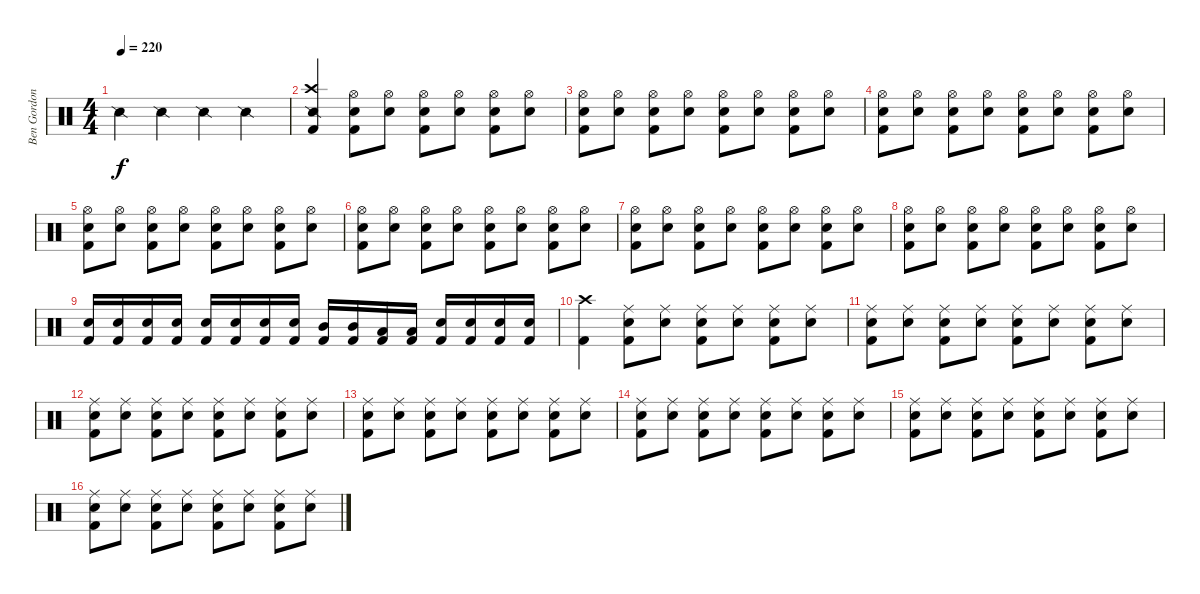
\track ("Ben Gordon" "Ben Gordon") {instrument percussion}
\staff {score}
\articulation defaults
\ts (4 4)
\tempo 220
\clef neutral
\ks c "Snare (side stick) 2".4{dy f} "Snare (side stick) 2".4 "Snare (side stick) 2".4 "Snare (side stick) 2".4
|
("Crash high (hit)" "Snare (side stick) 2" "Kick (hit) 2").4 ("Hi-Hat (open)" "Snare (hit) 2" "Kick (hit) 2").8 ("Hi-Hat (open)" "Snare (hit) 2").8 ("Hi-Hat (open)" "Snare (hit) 2" "Kick (hit) 2").8 ("Hi-Hat (open)" "Snare (hit) 2").8 ("Hi-Hat (open)" "Snare (hit) 2" "Kick (hit) 2").8 ("Hi-Hat (open)" "Snare (hit) 2").8 |
("Hi-Hat (open)" "Snare (hit) 2" "Kick (hit) 2").8 ("Hi-Hat (open)" "Snare (hit) 2").8 ("Hi-Hat (open)" "Snare (hit) 2" "Kick (hit) 2").8 ("Hi-Hat (open)" "Snare (hit) 2").8 ("Hi-Hat (open)" "Snare (hit) 2" "Kick (hit) 2").8 ("Hi-Hat (open)" "Snare (hit) 2").8 ("Hi-Hat (open)" "Snare (hit) 2" "Kick (hit) 2").8 ("Hi-Hat (open)" "Snare (hit) 2").8 |
("Hi-Hat (open)" "Snare (hit) 2" "Kick (hit) 2").8 ("Hi-Hat (open)" "Snare (hit) 2").8 ("Hi-Hat (open)" "Snare (hit) 2" "Kick (hit) 2").8 ("Hi-Hat (open)" "Snare (hit) 2").8 ("Hi-Hat (open)" "Snare (hit) 2" "Kick (hit) 2").8 ("Hi-Hat (open)" "Snare (hit) 2").8 ("Hi-Hat (open)" "Snare (hit) 2" "Kick (hit) 2").8 ("Hi-Hat (open)" "Snare (hit) 2").8 |
("Hi-Hat (open)" "Snare (hit) 2" "Kick (hit) 2").8 ("Hi-Hat (open)" "Snare (hit) 2").8 ("Hi-Hat (open)" "Snare (hit) 2" "Kick (hit) 2").8 ("Hi-Hat (open)" "Snare (hit) 2").8 ("Hi-Hat (open)" "Snare (hit) 2" "Kick (hit) 2").8 ("Hi-Hat (open)" "Snare (hit) 2").8 ("Hi-Hat (open)" "Snare (hit) 2" "Kick (hit) 2").8 ("Hi-Hat (open)" "Snare (hit) 2").8 |
("Hi-Hat (open)" "Snare (hit) 2" "Kick (hit) 2").8 ("Hi-Hat (open)" "Snare (hit) 2").8 ("Hi-Hat (open)" "Snare (hit) 2" "Kick (hit) 2").8 ("Hi-Hat (open)" "Snare (hit) 2").8 ("Hi-Hat (open)" "Snare (hit) 2" "Kick (hit) 2").8 ("Hi-Hat (open)" "Snare (hit) 2").8 ("Hi-Hat (open)" "Snare (hit) 2" "Kick (hit) 2").8 ("Hi-Hat (open)" "Snare (hit) 2").8 |
("Hi-Hat (open)" "Snare (hit) 2" "Kick (hit) 2").8 ("Hi-Hat (open)" "Snare (hit) 2").8 ("Hi-Hat (open)" "Snare (hit) 2" "Kick (hit) 2").8 ("Hi-Hat (open)" "Snare (hit) 2").8 ("Hi-Hat (open)" "Snare (hit) 2" "Kick (hit) 2").8 ("Hi-Hat (open)" "Snare (hit) 2").8 ("Hi-Hat (open)" "Snare (hit) 2" "Kick (hit) 2").8 ("Hi-Hat (open)" "Snare (hit) 2").8 |
("Hi-Hat (open)" "Snare (hit) 2" "Kick (hit) 2").8 ("Hi-Hat (open)" "Snare (hit) 2").8 ("Hi-Hat (open)" "Snare (hit) 2" "Kick (hit) 2").8 ("Hi-Hat (open)" "Snare (hit) 2").8 ("Hi-Hat (open)" "Snare (hit) 2" "Kick (hit) 2").8 ("Hi-Hat (open)" "Snare (hit) 2").8 ("Hi-Hat (open)" "Snare (hit) 2" "Kick (hit) 2").8 ("Hi-Hat (open)" "Snare (hit) 2").8 |
("Snare (hit) 2" "Kick (hit) 2").16 ("Snare (hit) 2" "Kick (hit) 2").16 ("Snare (hit) 2" "Kick (hit) 2").16 ("Snare (hit) 2" "Kick (hit) 2").16 ("Snare (hit) 2" "Kick (hit) 2").16 ("Snare (hit) 2" "Kick (hit) 2").16 ("Snare (hit) 2" "Kick (hit) 2").16 ("Snare (hit) 2" "Kick (hit) 2").16 ("Mid Tom (hit)" "Kick (hit) 2").16 ("Mid Tom (hit)" "Kick (hit) 2").16 ("Low Tom (hit)" "Kick (hit) 2").16 ("Low Tom (hit)" "Kick (hit) 2").16 ("Snare (hit) 2" "Kick (hit) 2").16 ("Snare (hit) 2" "Kick (hit) 2").16 ("Snare (hit) 2" "Kick (hit) 2").16 ("Snare (hit) 2" "Kick (hit) 2").16 |
("Crash high (hit)" "Kick (hit) 2").4 ("Ride (middle)" "Snare (hit) 2" "Kick (hit) 2").8 ("Ride (middle)" "Snare (hit) 2").8 ("Ride (middle)" "Snare (hit) 2" "Kick (hit) 2").8 ("Ride (middle)" "Snare (hit) 2").8 ("Ride (middle)" "Snare (hit) 2" "Kick (hit) 2").8 ("Ride (middle)" "Snare (hit) 2").8 |
("Ride (middle)" "Snare (hit) 2" "Kick (hit) 2").8 ("Ride (middle)" "Snare (hit) 2").8 ("Ride (middle)" "Snare (hit) 2" "Kick (hit) 2").8 ("Ride (middle)" "Snare (hit) 2").8 ("Ride (middle)" "Snare (hit) 2" "Kick (hit) 2").8 ("Ride (middle)" "Snare (hit) 2").8 ("Ride (middle)" "Snare (hit) 2" "Kick (hit) 2").8 ("Ride (middle)" "Snare (hit) 2").8 |
("Ride (middle)" "Snare (hit) 2" "Kick (hit) 2").8 ("Ride (middle)" "Snare (hit) 2").8 ("Ride (middle)" "Snare (hit) 2" "Kick (hit) 2").8 ("Ride (middle)" "Snare (hit) 2").8 ("Ride (middle)" "Snare (hit) 2" "Kick (hit) 2").8 ("Ride (middle)" "Snare (hit) 2").8 ("Ride (middle)" "Snare (hit) 2" "Kick (hit) 2").8 ("Ride (middle)" "Snare (hit) 2").8 |
("Ride (middle)" "Snare (hit) 2" "Kick (hit) 2").8 ("Ride (middle)" "Snare (hit) 2").8 ("Ride (middle)" "Snare (hit) 2" "Kick (hit) 2").8 ("Ride (middle)" "Snare (hit) 2").8 ("Ride (middle)" "Snare (hit) 2" "Kick (hit) 2").8 ("Ride (middle)" "Snare (hit) 2").8 ("Ride (middle)" "Snare (hit) 2" "Kick (hit) 2").8 ("Ride (middle)" "Snare (hit) 2").8 |
("Ride (middle)" "Snare (hit) 2" "Kick (hit) 2").8 ("Ride (middle)" "Snare (hit) 2").8 ("Ride (middle)" "Snare (hit) 2" "Kick (hit) 2").8 ("Ride (middle)" "Snare (hit) 2").8 ("Ride (middle)" "Snare (hit) 2" "Kick (hit) 2").8 ("Ride (middle)" "Snare (hit) 2").8 ("Ride (middle)" "Snare (hit) 2" "Kick (hit) 2").8 ("Ride (middle)" "Snare (hit) 2").8 |
("Ride (middle)" "Snare (hit) 2" "Kick (hit) 2").8 ("Ride (middle)" "Snare (hit) 2").8 ("Ride (middle)" "Snare (hit) 2" "Kick (hit) 2").8 ("Ride (middle)" "Snare (hit) 2").8 ("Ride (middle)" "Snare (hit) 2" "Kick (hit) 2").8 ("Ride (middle)" "Snare (hit) 2").8 ("Ride (middle)" "Snare (hit) 2" "Kick (hit) 2").8 ("Ride (middle)" "Snare (hit) 2").8 |
("Ride (middle)" "Snare (hit) 2" "Kick (hit) 2").8 ("Ride (middle)" "Snare (hit) 2").8 ("Ride (middle)" "Snare (hit) 2" "Kick (hit) 2").8 ("Ride (middle)" "Snare (hit) 2").8 ("Ride (middle)" "Snare (hit) 2" "Kick (hit) 2").8 ("Ride (middle)" "Snare (hit) 2").8 ("Ride (middle)" "Snare (hit) 2" "Kick (hit) 2").8 ("Ride (middle)" "Snare (hit) 2").8
